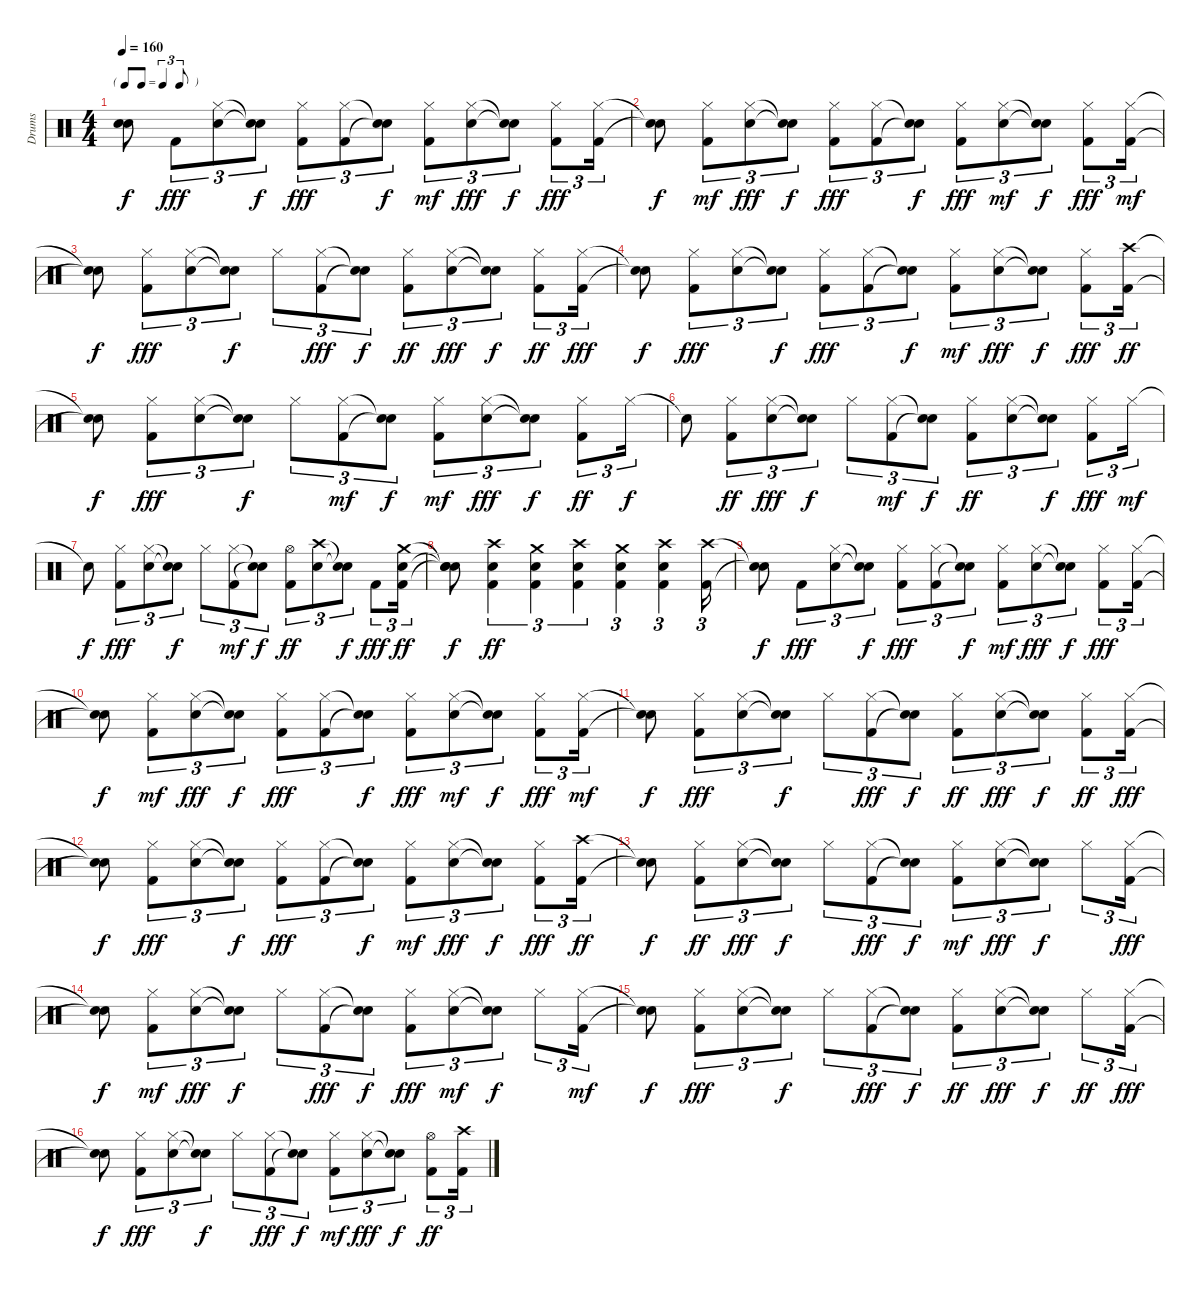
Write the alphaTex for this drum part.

\track ("Drums" "Drums") {instrument percussion}
\staff {score}
\articulation defaults
\ts (4 4)
\tf triplet8th
\tempo 160
\clef neutral
\ks c
("Snare (hit)"{t} "Snare (hit)"{t}).8{dy f} "Kick (hit) 2".8{tu (3 2) dy fff} ("Hi-Hat (closed)" "Electric Snare (hit)").8{tu (3 2)} ("Snare (hit)"{t} "Snare (hit)"{t}).8{tu (3 2) dy f} ("Kick (hit) 2" "Hi-Hat (closed)").8{tu (3 2) dy fff} ("Kick (hit) 2" "Hi-Hat (closed)").8{tu (3 2)} ("Snare (hit)"{t} "Snare (hit)"{t}).8{tu (3 2) dy f} ("Kick (hit) 2" "Hi-Hat (closed)").8{tu (3 2) dy mf} ("Electric Snare (hit)" "Hi-Hat (closed)").8{tu (3 2) dy fff} ("Snare (hit)"{t} "Snare (hit)"{t}).8{tu (3 2) dy f} ("Kick (hit) 2" "Hi-Hat (closed)").8{tu (3 2) dy fff} ("Kick (hit) 2" "Hi-Hat (closed)").16{tu (3 2)} |
("Snare (hit)"{t} "Snare (hit)"{t}).8{dy f} ("Kick (hit) 2" "Hi-Hat (closed)").8{tu (3 2) dy mf} ("Electric Snare (hit)" "Hi-Hat (closed)").8{tu (3 2) dy fff} ("Snare (hit)"{t} "Snare (hit)"{t}).8{tu (3 2) dy f} ("Kick (hit) 2" "Hi-Hat (closed)").8{tu (3 2) dy fff} ("Kick (hit) 2" "Hi-Hat (closed)").8{tu (3 2)} ("Snare (hit)"{t} "Snare (hit)"{t}).8{tu (3 2) dy f} ("Kick (hit) 2" "Hi-Hat (closed)").8{tu (3 2) dy fff} ("Electric Snare (hit)" "Hi-Hat (closed)").8{tu (3 2) dy mf} ("Snare (hit)"{t} "Snare (hit)"{t}).8{tu (3 2) dy f} ("Kick (hit) 2" "Hi-Hat (closed)").8{tu (3 2) dy fff} ("Kick (hit) 2" "Hi-Hat (closed)").16{tu (3 2) dy mf} |
("Snare (hit)"{t} "Snare (hit)"{t}).8{dy f} ("Kick (hit) 2" "Hi-Hat (closed)").8{tu (3 2) dy fff} ("Hi-Hat (closed)" "Electric Snare (hit)").8{tu (3 2)} ("Snare (hit)"{t} "Snare (hit)"{t}).8{tu (3 2) dy f} "Hi-Hat (closed)".8{tu (3 2)} ("Kick (hit) 2" "Hi-Hat (closed)").8{tu (3 2) dy fff} ("Snare (hit)"{t} "Snare (hit)"{t}).8{tu (3 2) dy f} ("Kick (hit) 2" "Hi-Hat (closed)").8{tu (3 2) dy ff} ("Hi-Hat (closed)" "Electric Snare (hit)").8{tu (3 2) dy fff} ("Snare (hit)"{t} "Snare (hit)"{t}).8{tu (3 2) dy f} ("Kick (hit) 2" "Hi-Hat (closed)").8{tu (3 2) dy ff} ("Kick (hit) 2" "Hi-Hat (closed)").16{tu (3 2) dy fff} |
("Snare (hit)"{t} "Snare (hit)"{t}).8{dy f} ("Kick (hit) 2" "Hi-Hat (closed)").8{tu (3 2) dy fff} ("Hi-Hat (closed)" "Electric Snare (hit)").8{tu (3 2)} ("Snare (hit)"{t} "Snare (hit)"{t}).8{tu (3 2) dy f} ("Kick (hit) 2" "Hi-Hat (closed)").8{tu (3 2) dy fff} ("Kick (hit) 2" "Hi-Hat (closed)").8{tu (3 2)} ("Snare (hit)"{t} "Snare (hit)"{t}).8{tu (3 2) dy f} ("Kick (hit) 2" "Hi-Hat (closed)").8{tu (3 2) dy mf} ("Hi-Hat (closed)" "Electric Snare (hit)").8{tu (3 2) dy fff} ("Snare (hit)"{t} "Snare (hit)"{t}).8{tu (3 2) dy f} ("Kick (hit) 2" "Hi-Hat (closed)").8{tu (3 2) dy fff} ("Kick (hit) 2" "Crash high (hit)").16{tu (3 2) dy ff} |
("Snare (hit)"{t} "Snare (hit)"{t}).8{dy f} ("Kick (hit) 2" "Hi-Hat (closed)").8{tu (3 2) dy fff} ("Electric Snare (hit)" "Hi-Hat (closed)").8{tu (3 2)} ("Snare (hit)"{t} "Snare (hit)"{t}).8{tu (3 2) dy f} "Hi-Hat (closed)".8{tu (3 2)} ("Kick (hit) 2" "Hi-Hat (closed)").8{tu (3 2) dy mf} ("Snare (hit)"{t} "Snare (hit)"{t}).8{tu (3 2) dy f} ("Kick (hit) 2" "Hi-Hat (closed)").8{tu (3 2) dy mf} ("Electric Snare (hit)" "Hi-Hat (closed)").8{tu (3 2) dy fff} ("Snare (hit)"{t} "Snare (hit)"{t}).8{tu (3 2) dy f} ("Kick (hit) 2" "Hi-Hat (closed)").8{tu (3 2) dy ff} "Hi-Hat (closed)".16{tu (3 2) dy f} |
"Snare (hit)"{t}.8 ("Kick (hit) 2" "Hi-Hat (closed)").8{tu (3 2) dy ff} ("Hi-Hat (closed)" "Electric Snare (hit)").8{tu (3 2) dy fff} ("Snare (hit)"{t} "Snare (hit)"{t}).8{tu (3 2) dy f} "Hi-Hat (closed)".8{tu (3 2)} ("Kick (hit) 2" "Hi-Hat (closed)").8{tu (3 2) dy mf} ("Snare (hit)"{t} "Snare (hit)"{t}).8{tu (3 2) dy f} ("Kick (hit) 2" "Hi-Hat (closed)").8{tu (3 2) dy ff} ("Electric Snare (hit)" "Hi-Hat (closed)").8{tu (3 2)} ("Snare (hit)"{t} "Snare (hit)"{t}).8{tu (3 2) dy f} ("Kick (hit) 2" "Hi-Hat (closed)").8{tu (3 2) dy fff} "Hi-Hat (closed)".16{tu (3 2) dy mf} |
"Snare (hit)"{t}.8{dy f} ("Kick (hit) 2" "Hi-Hat (closed)").8{tu (3 2) dy fff} ("Hi-Hat (closed)" "Electric Snare (hit)").8{tu (3 2)} ("Snare (hit)"{t} "Snare (hit)"{t}).8{tu (3 2) dy f} "Hi-Hat (closed)".8{tu (3 2)} ("Kick (hit) 2" "Hi-Hat (closed)").8{tu (3 2) dy mf} ("Snare (hit)"{t} "Snare (hit)"{t}).8{tu (3 2) dy f} ("Kick (hit) 2" "Hi-Hat (open)").8{tu (3 2) dy ff} ("Electric Snare (hit)" "Crash high (hit)").8{tu (3 2)} ("Snare (hit)"{t} "Snare (hit)"{t}).8{tu (3 2) dy f} "Kick (hit) 2".8{tu (3 2) dy fff} ("Kick (hit) 2" "Crash medium (hit)" "Electric Snare (hit)").16{tu (3 2) dy ff} |
("Snare (hit)"{t} "Snare (hit)"{t} "Snare (hit)"{t}).8{dy f} ("Kick (hit) 2" "Crash high (hit)" "Electric Snare (hit)").4{tu (3 2) dy ff} ("Kick (hit) 2" "Crash medium (hit)" "Electric Snare (hit)").4{tu (3 2)} ("Kick (hit) 2" "Crash high (hit)" "Electric Snare (hit)").4{tu (3 2)} ("Kick (hit) 2" "Crash medium (hit)" "Electric Snare (hit)").4{tu (3 2)} ("Kick (hit) 2" "Crash high (hit)" "Electric Snare (hit)").4{tu (3 2)} ("Kick (hit) 2" "Crash high (hit)").16{tu (3 2)} |
("Snare (hit)"{t} "Snare (hit)"{t}).8{dy f} "Kick (hit) 2".8{tu (3 2) dy fff} ("Hi-Hat (closed)" "Electric Snare (hit)").8{tu (3 2)} ("Snare (hit)"{t} "Snare (hit)"{t}).8{tu (3 2) dy f} ("Kick (hit) 2" "Hi-Hat (closed)").8{tu (3 2) dy fff} ("Kick (hit) 2" "Hi-Hat (closed)").8{tu (3 2)} ("Snare (hit)"{t} "Snare (hit)"{t}).8{tu (3 2) dy f} ("Kick (hit) 2" "Hi-Hat (closed)").8{tu (3 2) dy mf} ("Electric Snare (hit)" "Hi-Hat (closed)").8{tu (3 2) dy fff} ("Snare (hit)"{t} "Snare (hit)"{t}).8{tu (3 2) dy f} ("Kick (hit) 2" "Hi-Hat (closed)").8{tu (3 2) dy fff} ("Kick (hit) 2" "Hi-Hat (closed)").16{tu (3 2)} |
("Snare (hit)"{t} "Snare (hit)"{t}).8{dy f} ("Kick (hit) 2" "Hi-Hat (closed)").8{tu (3 2) dy mf} ("Electric Snare (hit)" "Hi-Hat (closed)").8{tu (3 2) dy fff} ("Snare (hit)"{t} "Snare (hit)"{t}).8{tu (3 2) dy f} ("Kick (hit) 2" "Hi-Hat (closed)").8{tu (3 2) dy fff} ("Kick (hit) 2" "Hi-Hat (closed)").8{tu (3 2)} ("Snare (hit)"{t} "Snare (hit)"{t}).8{tu (3 2) dy f} ("Kick (hit) 2" "Hi-Hat (closed)").8{tu (3 2) dy fff} ("Electric Snare (hit)" "Hi-Hat (closed)").8{tu (3 2) dy mf} ("Snare (hit)"{t} "Snare (hit)"{t}).8{tu (3 2) dy f} ("Kick (hit) 2" "Hi-Hat (closed)").8{tu (3 2) dy fff} ("Kick (hit) 2" "Hi-Hat (closed)").16{tu (3 2) dy mf} |
("Snare (hit)"{t} "Snare (hit)"{t}).8{dy f} ("Kick (hit) 2" "Hi-Hat (closed)").8{tu (3 2) dy fff} ("Hi-Hat (closed)" "Electric Snare (hit)").8{tu (3 2)} ("Snare (hit)"{t} "Snare (hit)"{t}).8{tu (3 2) dy f} "Hi-Hat (closed)".8{tu (3 2)} ("Kick (hit) 2" "Hi-Hat (closed)").8{tu (3 2) dy fff} ("Snare (hit)"{t} "Snare (hit)"{t}).8{tu (3 2) dy f} ("Kick (hit) 2" "Hi-Hat (closed)").8{tu (3 2) dy ff} ("Hi-Hat (closed)" "Electric Snare (hit)").8{tu (3 2) dy fff} ("Snare (hit)"{t} "Snare (hit)"{t}).8{tu (3 2) dy f} ("Kick (hit) 2" "Hi-Hat (closed)").8{tu (3 2) dy ff} ("Kick (hit) 2" "Hi-Hat (closed)").16{tu (3 2) dy fff} |
("Snare (hit)"{t} "Snare (hit)"{t}).8{dy f} ("Kick (hit) 2" "Hi-Hat (closed)").8{tu (3 2) dy fff} ("Hi-Hat (closed)" "Electric Snare (hit)").8{tu (3 2)} ("Snare (hit)"{t} "Snare (hit)"{t}).8{tu (3 2) dy f} ("Kick (hit) 2" "Hi-Hat (closed)").8{tu (3 2) dy fff} ("Kick (hit) 2" "Hi-Hat (closed)").8{tu (3 2)} ("Snare (hit)"{t} "Snare (hit)"{t}).8{tu (3 2) dy f} ("Kick (hit) 2" "Hi-Hat (closed)").8{tu (3 2) dy mf} ("Hi-Hat (closed)" "Electric Snare (hit)").8{tu (3 2) dy fff} ("Snare (hit)"{t} "Snare (hit)"{t}).8{tu (3 2) dy f} ("Kick (hit) 2" "Hi-Hat (closed)").8{tu (3 2) dy fff} ("Kick (hit) 2" "Crash high (hit)").16{tu (3 2) dy ff} |
("Snare (hit)"{t} "Snare (hit)"{t}).8{dy f} ("Kick (hit) 2" "Hi-Hat (closed)").8{tu (3 2) dy ff} ("Hi-Hat (closed)" "Electric Snare (hit)").8{tu (3 2) dy fff} ("Snare (hit)"{t} "Snare (hit)"{t}).8{tu (3 2) dy f} "Hi-Hat (closed)".8{tu (3 2)} ("Kick (hit) 2" "Hi-Hat (closed)").8{tu (3 2) dy fff} ("Snare (hit)"{t} "Snare (hit)"{t}).8{tu (3 2) dy f} ("Kick (hit) 2" "Hi-Hat (closed)").8{tu (3 2) dy mf} ("Electric Snare (hit)" "Hi-Hat (closed)").8{tu (3 2) dy fff} ("Snare (hit)"{t} "Snare (hit)"{t}).8{tu (3 2) dy f} "Hi-Hat (closed)".8{tu (3 2)} ("Kick (hit) 2" "Hi-Hat (closed)").16{tu (3 2) dy fff} |
("Snare (hit)"{t} "Snare (hit)"{t}).8{dy f} ("Kick (hit) 2" "Hi-Hat (closed)").8{tu (3 2) dy mf} ("Electric Snare (hit)" "Hi-Hat (closed)").8{tu (3 2) dy fff} ("Snare (hit)"{t} "Snare (hit)"{t}).8{tu (3 2) dy f} "Hi-Hat (closed)".8{tu (3 2)} ("Kick (hit) 2" "Hi-Hat (closed)").8{tu (3 2) dy fff} ("Snare (hit)"{t} "Snare (hit)"{t}).8{tu (3 2) dy f} ("Kick (hit) 2" "Hi-Hat (closed)").8{tu (3 2) dy fff} ("Electric Snare (hit)" "Hi-Hat (closed)").8{tu (3 2) dy mf} ("Snare (hit)"{t} "Snare (hit)"{t}).8{tu (3 2) dy f} "Hi-Hat (closed)".8{tu (3 2)} ("Kick (hit) 2" "Hi-Hat (closed)").16{tu (3 2) dy mf} |
("Snare (hit)"{t} "Snare (hit)"{t}).8{dy f} ("Kick (hit) 2" "Hi-Hat (closed)").8{tu (3 2) dy fff} ("Hi-Hat (closed)" "Electric Snare (hit)").8{tu (3 2)} ("Snare (hit)"{t} "Snare (hit)"{t}).8{tu (3 2) dy f} "Hi-Hat (closed)".8{tu (3 2)} ("Kick (hit) 2" "Hi-Hat (closed)").8{tu (3 2) dy fff} ("Snare (hit)"{t} "Snare (hit)"{t}).8{tu (3 2) dy f} ("Kick (hit) 2" "Hi-Hat (closed)").8{tu (3 2) dy ff} ("Hi-Hat (closed)" "Electric Snare (hit)").8{tu (3 2) dy fff} ("Snare (hit)"{t} "Snare (hit)"{t}).8{tu (3 2) dy f} "Hi-Hat (closed)".8{tu (3 2) dy ff} ("Kick (hit) 2" "Hi-Hat (closed)").16{tu (3 2) dy fff} |
("Snare (hit)"{t} "Snare (hit)"{t}).8{dy f} ("Kick (hit) 2" "Hi-Hat (closed)").8{tu (3 2) dy fff} ("Hi-Hat (closed)" "Electric Snare (hit)").8{tu (3 2)} ("Snare (hit)"{t} "Snare (hit)"{t}).8{tu (3 2) dy f} "Hi-Hat (closed)".8{tu (3 2)} ("Kick (hit) 2" "Hi-Hat (closed)").8{tu (3 2) dy fff} ("Snare (hit)"{t} "Snare (hit)"{t}).8{tu (3 2) dy f} ("Kick (hit) 2" "Hi-Hat (closed)").8{tu (3 2) dy mf} ("Hi-Hat (closed)" "Electric Snare (hit)").8{tu (3 2) dy fff} ("Snare (hit)"{t} "Snare (hit)"{t}).8{tu (3 2) dy f} ("Kick (hit) 2" "Hi-Hat (open)").8{tu (3 2) dy ff} ("Kick (hit) 2" "Crash high (hit)").16{tu (3 2)}
